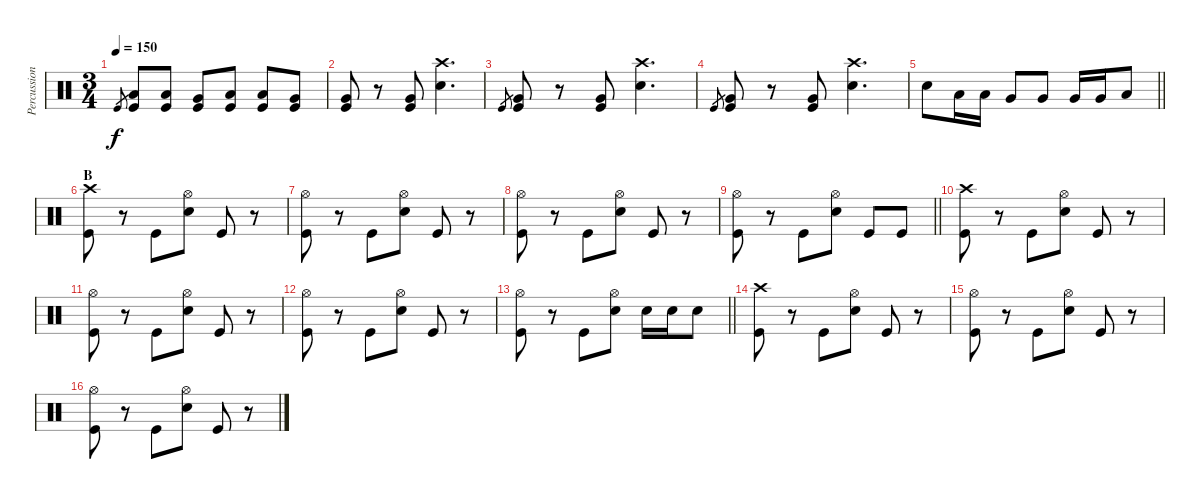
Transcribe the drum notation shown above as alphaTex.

\track ("Percussion" "Percussion") {instrument percussion}
\staff {score}
\articulation defaults
\ts (3 4)
\tempo 150
\clef neutral
\ks c "Kick (hit)".8{gr dy f}
("Low Tom (hit)" "Kick (hit)").8 ("Low Tom (hit)" "Kick (hit)").8 ("Very Low Tom (hit)" "Kick (hit)").8 ("Low Tom (hit)" "Kick (hit)").8 ("Low Tom (hit)" "Kick (hit)").8 ("Very Low Tom (hit)" "Kick (hit)").8 |
("Very Low Tom (hit)" "Kick (hit)").8 r.8 ("Very Low Tom (hit)" "Kick (hit)").8 ("Crash high (hit)" "Snare (hit) 2").4{d} |
"Kick (hit)".8{gr} ("Very Low Tom (hit)" "Kick (hit)").8 r.8 ("Very Low Tom (hit)" "Kick (hit)").8 ("Crash high (hit)" "Snare (hit) 2").4{d} |
"Kick (hit)".8{gr} ("Very Low Tom (hit)" "Kick (hit)").8 r.8 ("Very Low Tom (hit)" "Kick (hit)").8 ("Crash high (hit)" "Snare (hit) 2").4{d} |
\barLineRight lightlight "Snare (hit) 2".8 "Low Tom (hit)".16 "Low Tom (hit)".16 "Very Low Tom (hit)".8 "Very Low Tom (hit)".8 "Very Low Tom (hit)".16 "Very Low Tom (hit)".16 "Low Floor Tom (hit)".8
|
\section ("" "B")
("Crash high (hit)" "Kick (hit)").8 r.8 "Kick (hit)".8 ("Hi-Hat (open)" "Snare (hit) 2").8 "Kick (hit)".8 r.8 |
("Hi-Hat (open)" "Kick (hit)").8 r.8 "Kick (hit)".8 ("Hi-Hat (open)" "Snare (hit) 2").8 "Kick (hit)".8 r.8 |
("Hi-Hat (open)" "Kick (hit)").8 r.8 "Kick (hit)".8 ("Hi-Hat (open)" "Snare (hit) 2").8 "Kick (hit)".8 r.8 |
\barLineRight lightlight
("Hi-Hat (open)" "Kick (hit)").8 r.8 "Kick (hit)".8 ("Hi-Hat (open)" "Snare (hit) 2").8 "Kick (hit)".8 "Kick (hit)".8 |
("Crash high (hit)" "Kick (hit)").8 r.8 "Kick (hit)".8 ("Hi-Hat (open)" "Snare (hit) 2").8 "Kick (hit)".8 r.8 |
("Hi-Hat (open)" "Kick (hit)").8 r.8 "Kick (hit)".8 ("Hi-Hat (open)" "Snare (hit) 2").8 "Kick (hit)".8 r.8 |
("Hi-Hat (open)" "Kick (hit)").8 r.8 "Kick (hit)".8 ("Hi-Hat (open)" "Snare (hit) 2").8 "Kick (hit)".8 r.8 |
\barLineRight lightlight
("Hi-Hat (open)" "Kick (hit)").8 r.8 "Kick (hit)".8 ("Hi-Hat (open)" "Snare (hit) 2").8 "Snare (hit) 2".16 "Snare (hit) 2".16 "Snare (hit) 2".8 |
("Crash high (hit)" "Kick (hit)").8 r.8 "Kick (hit)".8 ("Hi-Hat (open)" "Snare (hit) 2").8 "Kick (hit)".8 r.8 |
("Hi-Hat (open)" "Kick (hit)").8 r.8 "Kick (hit)".8 ("Hi-Hat (open)" "Snare (hit) 2").8 "Kick (hit)".8 r.8 |
("Hi-Hat (open)" "Kick (hit)").8 r.8 "Kick (hit)".8 ("Hi-Hat (open)" "Snare (hit) 2").8 "Kick (hit)".8 r.8
